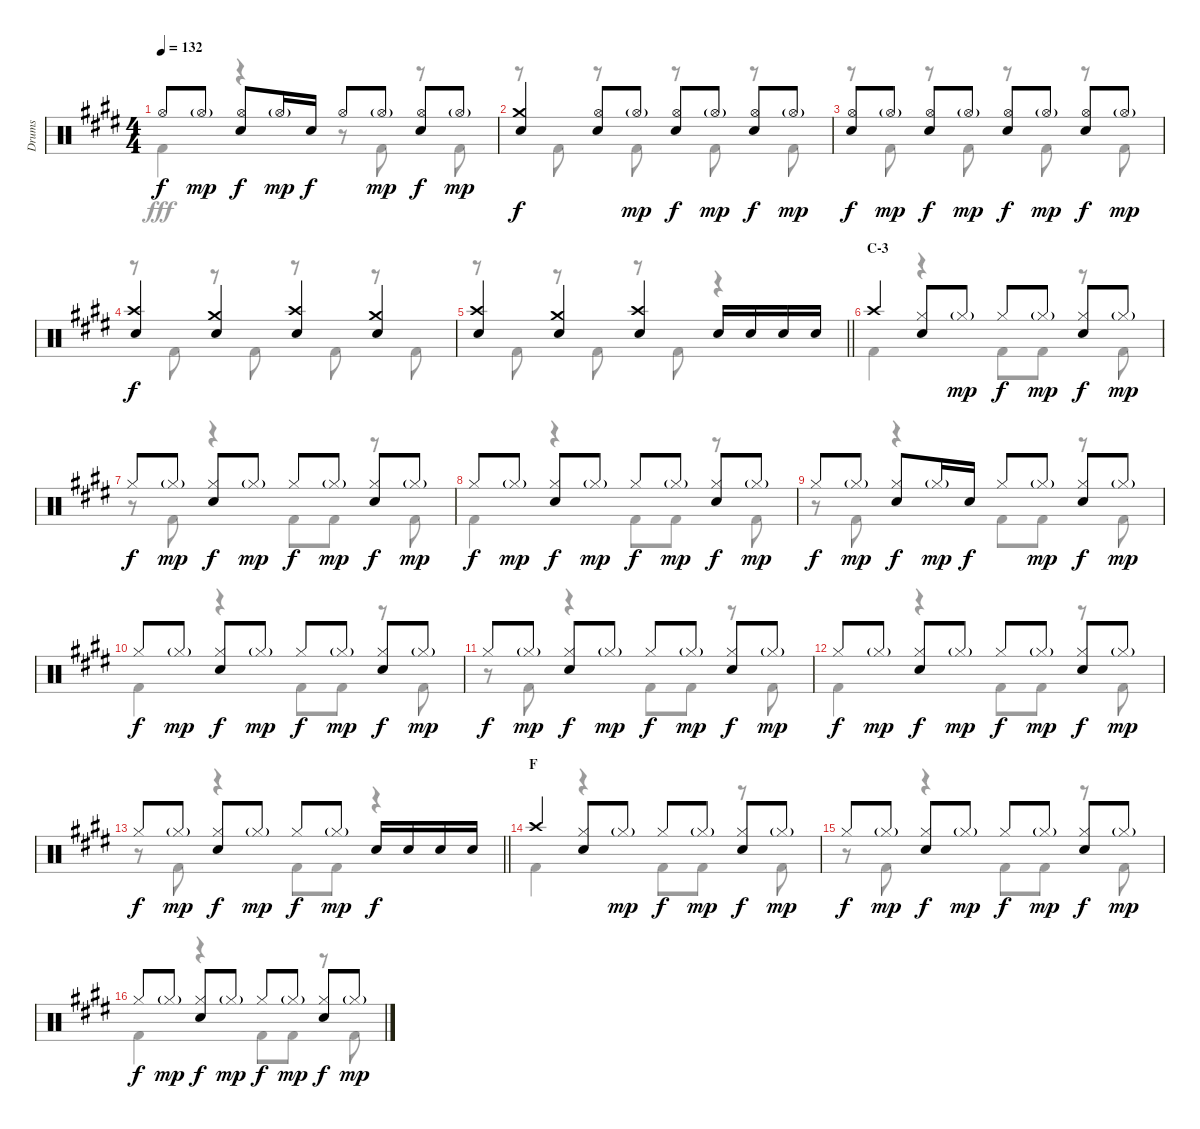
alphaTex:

\track ("Drums" "Drums") {instrument percussion}
\staff {score}
\articulation defaults
\voice
\ts (4 4)
\tempo 132
\clef neutral
\ks e "Hi-Hat (open)".8{dy f} "Hi-Hat (open)"{g}.8{dy mp}
("Hi-Hat (open)" "Snare (hit) 2").8{dy f} "Hi-Hat (open)"{g}.16{dy mp} "Snare (hit) 2".16{dy f} "Hi-Hat (open)".8 "Hi-Hat (open)"{g}.8{dy mp} ("Hi-Hat (open)" "Snare (hit) 2").8{dy f} "Hi-Hat (open)"{g}.8{dy mp} |
("Crash medium (hit)" "Snare (hit) 2").4{dy f} ("Hi-Hat (open)" "Snare (hit) 2").8 "Hi-Hat (open)"{g}.8{dy mp} ("Hi-Hat (open)" "Snare (hit) 2").8{dy f} "Hi-Hat (open)"{g}.8{dy mp} ("Hi-Hat (open)" "Snare (hit) 2").8{dy f} "Hi-Hat (open)"{g}.8{dy mp} |
("Hi-Hat (open)" "Snare (hit) 2").8{dy f} "Hi-Hat (open)"{g}.8{dy mp} ("Hi-Hat (open)" "Snare (hit) 2").8{dy f} "Hi-Hat (open)"{g}.8{dy mp} ("Hi-Hat (open)" "Snare (hit) 2").8{dy f} "Hi-Hat (open)"{g}.8{dy mp} ("Hi-Hat (open)" "Snare (hit) 2").8{dy f} "Hi-Hat (open)"{g}.8{dy mp} |
("Crash high (hit)" "Snare (hit) 2").4{dy f} ("Crash medium (hit)" "Snare (hit) 2").4 ("Crash high (hit)" "Snare (hit) 2").4 ("Crash medium (hit)" "Snare (hit) 2").4 |
\barLineRight lightlight
("Crash high (hit)" "Snare (hit) 2").4 ("Crash medium (hit)" "Snare (hit) 2").4 ("Crash high (hit)" "Snare (hit) 2").4 "Snare (hit) 2".16 "Snare (hit) 2".16 "Snare (hit) 2".16 "Snare (hit) 2".16 |
\section ("" "C-3")
"Crash high (hit)".4 ("Hi-Hat (closed)" "Snare (hit) 2").8 "Hi-Hat (closed)"{g}.8{dy mp} "Hi-Hat (closed)".8{dy f} "Hi-Hat (closed)"{g}.8{dy mp} ("Hi-Hat (closed)" "Snare (hit) 2").8{dy f} "Hi-Hat (closed)"{g}.8{dy mp} |
"Hi-Hat (closed)".8{dy f} "Hi-Hat (closed)"{g}.8{dy mp} ("Hi-Hat (closed)" "Snare (hit) 2").8{dy f} "Hi-Hat (closed)"{g}.8{dy mp} "Hi-Hat (closed)".8{dy f} "Hi-Hat (closed)"{g}.8{dy mp} ("Hi-Hat (closed)" "Snare (hit) 2").8{dy f} "Hi-Hat (closed)"{g}.8{dy mp} |
"Hi-Hat (closed)".8{dy f} "Hi-Hat (closed)"{g}.8{dy mp} ("Hi-Hat (closed)" "Snare (hit) 2").8{dy f} "Hi-Hat (closed)"{g}.8{dy mp} "Hi-Hat (closed)".8{dy f} "Hi-Hat (closed)"{g}.8{dy mp} ("Hi-Hat (closed)" "Snare (hit) 2").8{dy f} "Hi-Hat (closed)"{g}.8{dy mp} |
"Hi-Hat (closed)".8{dy f} "Hi-Hat (closed)"{g}.8{dy mp} ("Hi-Hat (closed)" "Snare (hit) 2").8{dy f} "Hi-Hat (closed)"{g}.16{dy mp} "Snare (hit) 2".16{dy f} "Hi-Hat (closed)".8 "Hi-Hat (closed)"{g}.8{dy mp} ("Hi-Hat (closed)" "Snare (hit) 2").8{dy f} "Hi-Hat (closed)"{g}.8{dy mp} |
"Hi-Hat (closed)".8{dy f} "Hi-Hat (closed)"{g}.8{dy mp} ("Hi-Hat (closed)" "Snare (hit) 2").8{dy f} "Hi-Hat (closed)"{g}.8{dy mp} "Hi-Hat (closed)".8{dy f} "Hi-Hat (closed)"{g}.8{dy mp} ("Hi-Hat (closed)" "Snare (hit) 2").8{dy f} "Hi-Hat (closed)"{g}.8{dy mp} |
"Hi-Hat (closed)".8{dy f} "Hi-Hat (closed)"{g}.8{dy mp} ("Hi-Hat (closed)" "Snare (hit) 2").8{dy f} "Hi-Hat (closed)"{g}.8{dy mp} "Hi-Hat (closed)".8{dy f} "Hi-Hat (closed)"{g}.8{dy mp} ("Hi-Hat (closed)" "Snare (hit) 2").8{dy f} "Hi-Hat (closed)"{g}.8{dy mp} |
"Hi-Hat (closed)".8{dy f} "Hi-Hat (closed)"{g}.8{dy mp} ("Hi-Hat (closed)" "Snare (hit) 2").8{dy f} "Hi-Hat (closed)"{g}.8{dy mp} "Hi-Hat (closed)".8{dy f} "Hi-Hat (closed)"{g}.8{dy mp} ("Hi-Hat (closed)" "Snare (hit) 2").8{dy f} "Hi-Hat (closed)"{g}.8{dy mp} |
\barLineRight lightlight "Hi-Hat (closed)".8{dy f} "Hi-Hat (closed)"{g}.8{dy mp}
("Hi-Hat (closed)" "Snare (hit) 2").8{dy f} "Hi-Hat (closed)"{g}.8{dy mp} "Hi-Hat (closed)".8{dy f} "Hi-Hat (closed)"{g}.8{dy mp} "Snare (hit) 2".16{dy f} "Snare (hit) 2".16 "Snare (hit) 2".16 "Snare (hit) 2".16 |
\section ("" "F")
"Crash high (hit)".4 ("Hi-Hat (closed)" "Snare (hit) 2").8 "Hi-Hat (closed)"{g}.8{dy mp} "Hi-Hat (closed)".8{dy f} "Hi-Hat (closed)"{g}.8{dy mp} ("Hi-Hat (closed)" "Snare (hit) 2").8{dy f} "Hi-Hat (closed)"{g}.8{dy mp} |
"Hi-Hat (closed)".8{dy f} "Hi-Hat (closed)"{g}.8{dy mp} ("Hi-Hat (closed)" "Snare (hit) 2").8{dy f} "Hi-Hat (closed)"{g}.8{dy mp} "Hi-Hat (closed)".8{dy f} "Hi-Hat (closed)"{g}.8{dy mp} ("Hi-Hat (closed)" "Snare (hit) 2").8{dy f} "Hi-Hat (closed)"{g}.8{dy mp} |
"Hi-Hat (closed)".8{dy f} "Hi-Hat (closed)"{g}.8{dy mp} ("Hi-Hat (closed)" "Snare (hit) 2").8{dy f} "Hi-Hat (closed)"{g}.8{dy mp} "Hi-Hat (closed)".8{dy f} "Hi-Hat (closed)"{g}.8{dy mp} ("Hi-Hat (closed)" "Snare (hit) 2").8{dy f} "Hi-Hat (closed)"{g}.8{dy mp}
\voice
\clef neutral
\ottava regular
\simile none
\ks e "Kick (hit) 2".4{dy fff}
r.4 r.8 "Kick (hit) 2".8 r.8 "Kick (hit) 2".8 |
r.8 "Kick (hit) 2".8 r.8 "Kick (hit) 2".8 r.8 "Kick (hit) 2".8 r.8 "Kick (hit) 2".8 |
r.8 "Kick (hit) 2".8 r.8 "Kick (hit) 2".8 r.8 "Kick (hit) 2".8 r.8 "Kick (hit) 2".8 |
r.8 "Kick (hit) 2".8 r.8 "Kick (hit) 2".8 r.8 "Kick (hit) 2".8 r.8 "Kick (hit) 2".8 |
\barLineRight lightlight
r.8 "Kick (hit) 2".8 r.8 "Kick (hit) 2".8 r.8 "Kick (hit) 2".8 r.4 |
"Kick (hit) 2".4 r.4 "Kick (hit) 2".8 "Kick (hit) 2".8 r.8 "Kick (hit) 2".8 |
r.8 "Kick (hit) 2".8 r.4 "Kick (hit) 2".8 "Kick (hit) 2".8 r.8 "Kick (hit) 2".8 |
"Kick (hit) 2".4 r.4 "Kick (hit) 2".8 "Kick (hit) 2".8 r.8 "Kick (hit) 2".8 |
r.8 "Kick (hit) 2".8 r.4 "Kick (hit) 2".8 "Kick (hit) 2".8 r.8 "Kick (hit) 2".8 |
"Kick (hit) 2".4 r.4 "Kick (hit) 2".8 "Kick (hit) 2".8 r.8 "Kick (hit) 2".8 |
r.8 "Kick (hit) 2".8 r.4 "Kick (hit) 2".8 "Kick (hit) 2".8 r.8 "Kick (hit) 2".8 |
"Kick (hit) 2".4 r.4 "Kick (hit) 2".8 "Kick (hit) 2".8 r.8 "Kick (hit) 2".8 |
\barLineRight lightlight
r.8 "Kick (hit) 2".8 r.4 "Kick (hit) 2".8 "Kick (hit) 2".8 r.4 |
"Kick (hit) 2".4 r.4 "Kick (hit) 2".8 "Kick (hit) 2".8 r.8 "Kick (hit) 2".8 |
r.8 "Kick (hit) 2".8 r.4 "Kick (hit) 2".8 "Kick (hit) 2".8 r.8 "Kick (hit) 2".8 |
"Kick (hit) 2".4 r.4 "Kick (hit) 2".8 "Kick (hit) 2".8 r.8 "Kick (hit) 2".8
